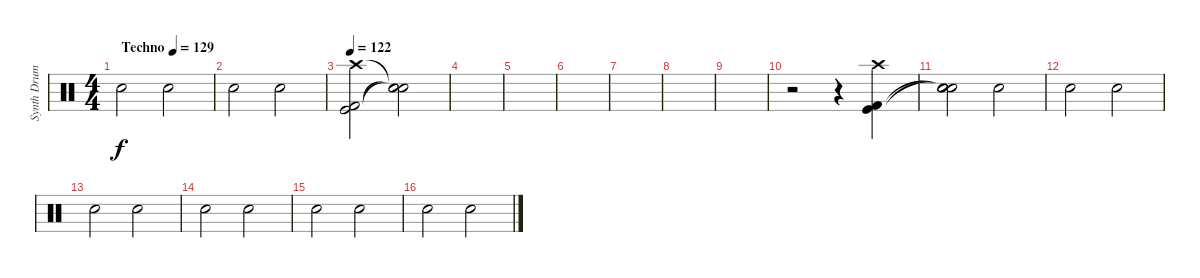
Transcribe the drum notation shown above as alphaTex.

\track ("Synth Drums" "Synth Drum") {instrument percussion}
\staff {score}
\articulation defaults
\ts (4 4)
\tempo (129 "Techno")
\tempo 132
\tempo (129 "Techno")
\clef neutral
\ks c "Hand Clap (hit)".2{dy f} "Hand Clap (hit)".2
|
"Hand Clap (hit)".2 "Hand Clap (hit)".2 |
\tempo 122
("Crash high (hit)" "Kick (hit) 2" "Kick (hit)").2 ("Snare (hit)"{t} "Snare (hit)"{t} "Snare (hit)"{t}).2 |
|
|
|
|
|
|
r.2 r.4 ("Crash high (hit)" "Kick (hit) 2" "Kick (hit)").4 |
("Hand Clap (hit)" "Snare (hit)"{t} "Snare (hit)"{t} "Hand Clap (hit)").2 "Hand Clap (hit)".2 |
"Hand Clap (hit)".2 "Hand Clap (hit)".2 |
"Hand Clap (hit)".2 "Hand Clap (hit)".2 |
"Hand Clap (hit)".2 "Hand Clap (hit)".2 |
"Hand Clap (hit)".2 "Hand Clap (hit)".2 |
"Hand Clap (hit)".2 "Hand Clap (hit)".2
